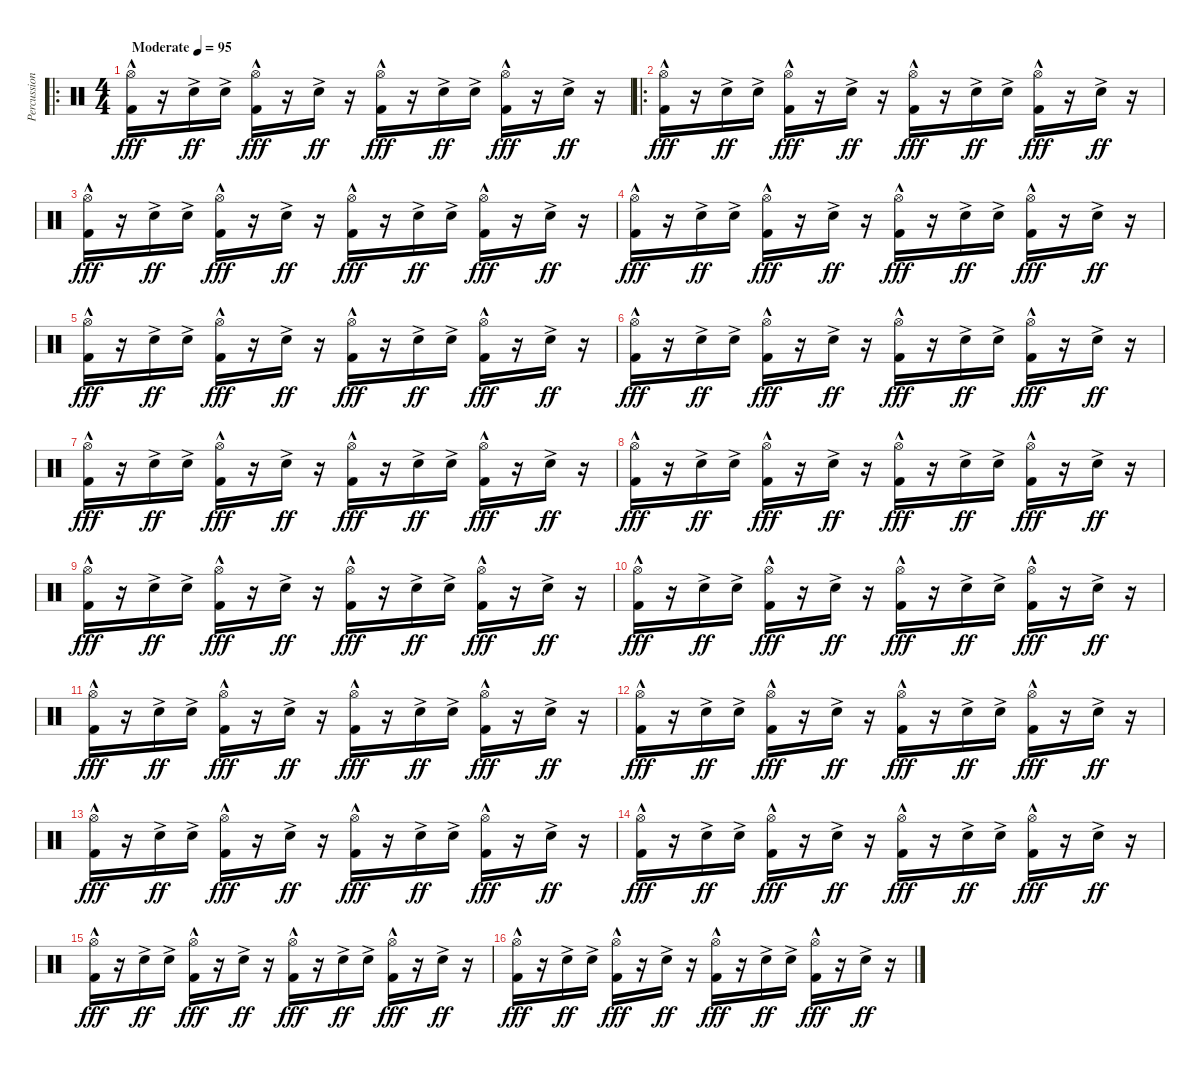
\track ("Percussion" "Percussion") {instrument percussion}
\staff {score}
\articulation defaults
\ro
\ts (4 4)
\tempo (95 "Moderate")
\clef neutral
\ks c
("Hi-Hat (open)"{hac} "Kick (hit) 2"{hac}).16{dy fff} r.16 "Snare (hit) 2"{ac}.16{dy ff} "Snare (hit) 2"{ac}.16 ("Hi-Hat (open)"{hac} "Kick (hit) 2"{hac}).16{dy fff} r.16 "Snare (hit) 2"{ac}.16{dy ff} r.16 ("Hi-Hat (open)"{hac} "Kick (hit) 2"{hac}).16{dy fff} r.16 "Snare (hit) 2"{ac}.16{dy ff} "Snare (hit) 2"{ac}.16 ("Hi-Hat (open)"{hac} "Kick (hit) 2"{hac}).16{dy fff} r.16 "Snare (hit) 2"{ac}.16{dy ff} r.16 |
\ro
("Hi-Hat (open)"{hac} "Kick (hit) 2"{hac}).16{dy fff} r.16 "Snare (hit) 2"{ac}.16{dy ff} "Snare (hit) 2"{ac}.16 ("Hi-Hat (open)"{hac} "Kick (hit) 2"{hac}).16{dy fff} r.16 "Snare (hit) 2"{ac}.16{dy ff} r.16 ("Hi-Hat (open)"{hac} "Kick (hit) 2"{hac}).16{dy fff} r.16 "Snare (hit) 2"{ac}.16{dy ff} "Snare (hit) 2"{ac}.16 ("Hi-Hat (open)"{hac} "Kick (hit) 2"{hac}).16{dy fff} r.16 "Snare (hit) 2"{ac}.16{dy ff} r.16 |
("Hi-Hat (open)"{hac} "Kick (hit) 2"{hac}).16{dy fff} r.16 "Snare (hit) 2"{ac}.16{dy ff} "Snare (hit) 2"{ac}.16 ("Hi-Hat (open)"{hac} "Kick (hit) 2"{hac}).16{dy fff} r.16 "Snare (hit) 2"{ac}.16{dy ff} r.16 ("Hi-Hat (open)"{hac} "Kick (hit) 2"{hac}).16{dy fff} r.16 "Snare (hit) 2"{ac}.16{dy ff} "Snare (hit) 2"{ac}.16 ("Hi-Hat (open)"{hac} "Kick (hit) 2"{hac}).16{dy fff} r.16 "Snare (hit) 2"{ac}.16{dy ff} r.16 |
("Hi-Hat (open)"{hac} "Kick (hit) 2"{hac}).16{dy fff} r.16 "Snare (hit) 2"{ac}.16{dy ff} "Snare (hit) 2"{ac}.16 ("Hi-Hat (open)"{hac} "Kick (hit) 2"{hac}).16{dy fff} r.16 "Snare (hit) 2"{ac}.16{dy ff} r.16 ("Hi-Hat (open)"{hac} "Kick (hit) 2"{hac}).16{dy fff} r.16 "Snare (hit) 2"{ac}.16{dy ff} "Snare (hit) 2"{ac}.16 ("Hi-Hat (open)"{hac} "Kick (hit) 2"{hac}).16{dy fff} r.16 "Snare (hit) 2"{ac}.16{dy ff} r.16 |
("Hi-Hat (open)"{hac} "Kick (hit) 2"{hac}).16{dy fff} r.16 "Snare (hit) 2"{ac}.16{dy ff} "Snare (hit) 2"{ac}.16 ("Hi-Hat (open)"{hac} "Kick (hit) 2"{hac}).16{dy fff} r.16 "Snare (hit) 2"{ac}.16{dy ff} r.16 ("Hi-Hat (open)"{hac} "Kick (hit) 2"{hac}).16{dy fff} r.16 "Snare (hit) 2"{ac}.16{dy ff} "Snare (hit) 2"{ac}.16 ("Hi-Hat (open)"{hac} "Kick (hit) 2"{hac}).16{dy fff} r.16 "Snare (hit) 2"{ac}.16{dy ff} r.16 |
("Hi-Hat (open)"{hac} "Kick (hit) 2"{hac}).16{dy fff} r.16 "Snare (hit) 2"{ac}.16{dy ff} "Snare (hit) 2"{ac}.16 ("Hi-Hat (open)"{hac} "Kick (hit) 2"{hac}).16{dy fff} r.16 "Snare (hit) 2"{ac}.16{dy ff} r.16 ("Hi-Hat (open)"{hac} "Kick (hit) 2"{hac}).16{dy fff} r.16 "Snare (hit) 2"{ac}.16{dy ff} "Snare (hit) 2"{ac}.16 ("Hi-Hat (open)"{hac} "Kick (hit) 2"{hac}).16{dy fff} r.16 "Snare (hit) 2"{ac}.16{dy ff} r.16 |
("Hi-Hat (open)"{hac} "Kick (hit) 2"{hac}).16{dy fff} r.16 "Snare (hit) 2"{ac}.16{dy ff} "Snare (hit) 2"{ac}.16 ("Hi-Hat (open)"{hac} "Kick (hit) 2"{hac}).16{dy fff} r.16 "Snare (hit) 2"{ac}.16{dy ff} r.16 ("Hi-Hat (open)"{hac} "Kick (hit) 2"{hac}).16{dy fff} r.16 "Snare (hit) 2"{ac}.16{dy ff} "Snare (hit) 2"{ac}.16 ("Hi-Hat (open)"{hac} "Kick (hit) 2"{hac}).16{dy fff} r.16 "Snare (hit) 2"{ac}.16{dy ff} r.16 |
("Hi-Hat (open)"{hac} "Kick (hit) 2"{hac}).16{dy fff} r.16 "Snare (hit) 2"{ac}.16{dy ff} "Snare (hit) 2"{ac}.16 ("Hi-Hat (open)"{hac} "Kick (hit) 2"{hac}).16{dy fff} r.16 "Snare (hit) 2"{ac}.16{dy ff} r.16 ("Hi-Hat (open)"{hac} "Kick (hit) 2"{hac}).16{dy fff} r.16 "Snare (hit) 2"{ac}.16{dy ff} "Snare (hit) 2"{ac}.16 ("Hi-Hat (open)"{hac} "Kick (hit) 2"{hac}).16{dy fff} r.16 "Snare (hit) 2"{ac}.16{dy ff} r.16 |
("Hi-Hat (open)"{hac} "Kick (hit) 2"{hac}).16{dy fff} r.16 "Snare (hit) 2"{ac}.16{dy ff} "Snare (hit) 2"{ac}.16 ("Hi-Hat (open)"{hac} "Kick (hit) 2"{hac}).16{dy fff} r.16 "Snare (hit) 2"{ac}.16{dy ff} r.16 ("Hi-Hat (open)"{hac} "Kick (hit) 2"{hac}).16{dy fff} r.16 "Snare (hit) 2"{ac}.16{dy ff} "Snare (hit) 2"{ac}.16 ("Hi-Hat (open)"{hac} "Kick (hit) 2"{hac}).16{dy fff} r.16 "Snare (hit) 2"{ac}.16{dy ff} r.16 |
("Hi-Hat (open)"{hac} "Kick (hit) 2"{hac}).16{dy fff} r.16 "Snare (hit) 2"{ac}.16{dy ff} "Snare (hit) 2"{ac}.16 ("Hi-Hat (open)"{hac} "Kick (hit) 2"{hac}).16{dy fff} r.16 "Snare (hit) 2"{ac}.16{dy ff} r.16 ("Hi-Hat (open)"{hac} "Kick (hit) 2"{hac}).16{dy fff} r.16 "Snare (hit) 2"{ac}.16{dy ff} "Snare (hit) 2"{ac}.16 ("Hi-Hat (open)"{hac} "Kick (hit) 2"{hac}).16{dy fff} r.16 "Snare (hit) 2"{ac}.16{dy ff} r.16 |
("Hi-Hat (open)"{hac} "Kick (hit) 2"{hac}).16{dy fff} r.16 "Snare (hit) 2"{ac}.16{dy ff} "Snare (hit) 2"{ac}.16 ("Hi-Hat (open)"{hac} "Kick (hit) 2"{hac}).16{dy fff} r.16 "Snare (hit) 2"{ac}.16{dy ff} r.16 ("Hi-Hat (open)"{hac} "Kick (hit) 2"{hac}).16{dy fff} r.16 "Snare (hit) 2"{ac}.16{dy ff} "Snare (hit) 2"{ac}.16 ("Hi-Hat (open)"{hac} "Kick (hit) 2"{hac}).16{dy fff} r.16 "Snare (hit) 2"{ac}.16{dy ff} r.16 |
("Hi-Hat (open)"{hac} "Kick (hit) 2"{hac}).16{dy fff} r.16 "Snare (hit) 2"{ac}.16{dy ff} "Snare (hit) 2"{ac}.16 ("Hi-Hat (open)"{hac} "Kick (hit) 2"{hac}).16{dy fff} r.16 "Snare (hit) 2"{ac}.16{dy ff} r.16 ("Hi-Hat (open)"{hac} "Kick (hit) 2"{hac}).16{dy fff} r.16 "Snare (hit) 2"{ac}.16{dy ff} "Snare (hit) 2"{ac}.16 ("Hi-Hat (open)"{hac} "Kick (hit) 2"{hac}).16{dy fff} r.16 "Snare (hit) 2"{ac}.16{dy ff} r.16 |
("Hi-Hat (open)"{hac} "Kick (hit) 2"{hac}).16{dy fff} r.16 "Snare (hit) 2"{ac}.16{dy ff} "Snare (hit) 2"{ac}.16 ("Hi-Hat (open)"{hac} "Kick (hit) 2"{hac}).16{dy fff} r.16 "Snare (hit) 2"{ac}.16{dy ff} r.16 ("Hi-Hat (open)"{hac} "Kick (hit) 2"{hac}).16{dy fff} r.16 "Snare (hit) 2"{ac}.16{dy ff} "Snare (hit) 2"{ac}.16 ("Hi-Hat (open)"{hac} "Kick (hit) 2"{hac}).16{dy fff} r.16 "Snare (hit) 2"{ac}.16{dy ff} r.16 |
("Hi-Hat (open)"{hac} "Kick (hit) 2"{hac}).16{dy fff} r.16 "Snare (hit) 2"{ac}.16{dy ff} "Snare (hit) 2"{ac}.16 ("Hi-Hat (open)"{hac} "Kick (hit) 2"{hac}).16{dy fff} r.16 "Snare (hit) 2"{ac}.16{dy ff} r.16 ("Hi-Hat (open)"{hac} "Kick (hit) 2"{hac}).16{dy fff} r.16 "Snare (hit) 2"{ac}.16{dy ff} "Snare (hit) 2"{ac}.16 ("Hi-Hat (open)"{hac} "Kick (hit) 2"{hac}).16{dy fff} r.16 "Snare (hit) 2"{ac}.16{dy ff} r.16 |
("Hi-Hat (open)"{hac} "Kick (hit) 2"{hac}).16{dy fff} r.16 "Snare (hit) 2"{ac}.16{dy ff} "Snare (hit) 2"{ac}.16 ("Hi-Hat (open)"{hac} "Kick (hit) 2"{hac}).16{dy fff} r.16 "Snare (hit) 2"{ac}.16{dy ff} r.16 ("Hi-Hat (open)"{hac} "Kick (hit) 2"{hac}).16{dy fff} r.16 "Snare (hit) 2"{ac}.16{dy ff} "Snare (hit) 2"{ac}.16 ("Hi-Hat (open)"{hac} "Kick (hit) 2"{hac}).16{dy fff} r.16 "Snare (hit) 2"{ac}.16{dy ff} r.16 |
("Hi-Hat (open)"{hac} "Kick (hit) 2"{hac}).16{dy fff} r.16 "Snare (hit) 2"{ac}.16{dy ff} "Snare (hit) 2"{ac}.16 ("Hi-Hat (open)"{hac} "Kick (hit) 2"{hac}).16{dy fff} r.16 "Snare (hit) 2"{ac}.16{dy ff} r.16 ("Hi-Hat (open)"{hac} "Kick (hit) 2"{hac}).16{dy fff} r.16 "Snare (hit) 2"{ac}.16{dy ff} "Snare (hit) 2"{ac}.16 ("Hi-Hat (open)"{hac} "Kick (hit) 2"{hac}).16{dy fff} r.16 "Snare (hit) 2"{ac}.16{dy ff} r.16
